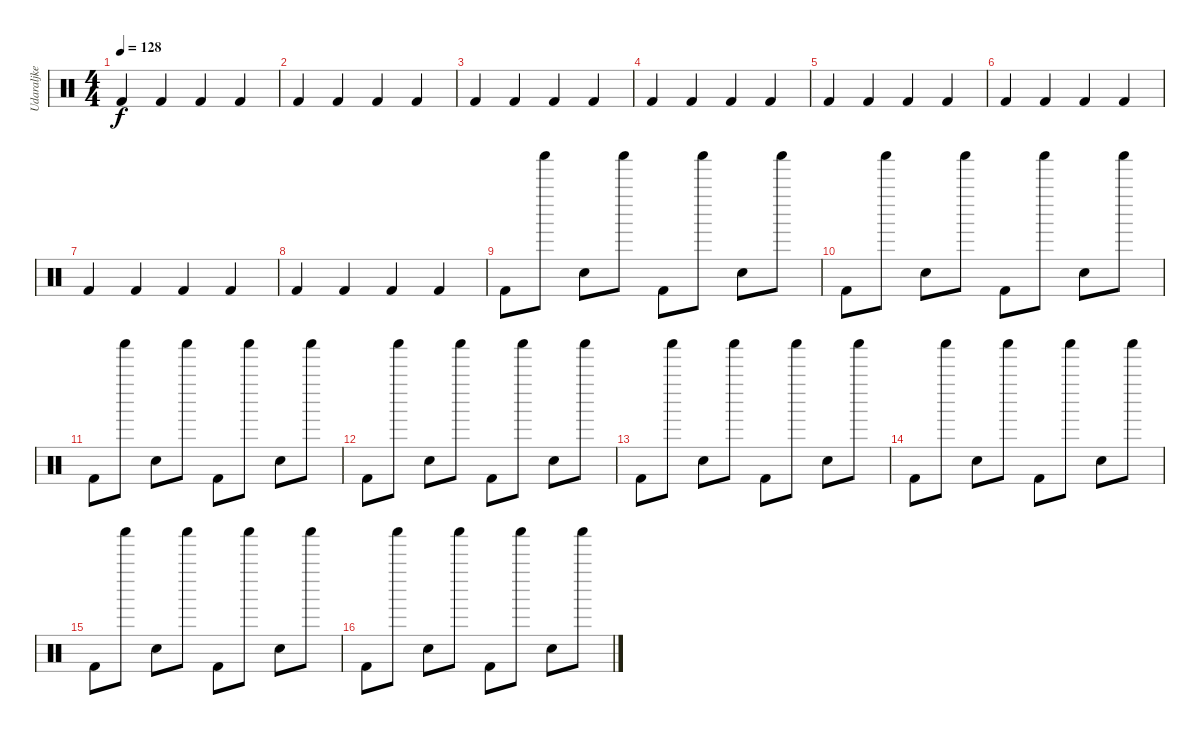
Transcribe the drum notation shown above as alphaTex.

\track ("Udaraljke" "Udaraljke") {instrument percussion}
\staff {score}
\articulation defaults
\ts (4 4)
\tempo 128
\clef neutral
\ks c "Kick (hit) 2".4{dy f} "Kick (hit) 2".4 "Kick (hit) 2".4 "Kick (hit) 2".4
|
"Kick (hit) 2".4 "Kick (hit) 2".4 "Kick (hit) 2".4 "Kick (hit) 2".4 |
"Kick (hit) 2".4 "Kick (hit) 2".4 "Kick (hit) 2".4 "Kick (hit) 2".4 |
"Kick (hit) 2".4 "Kick (hit) 2".4 "Kick (hit) 2".4 "Kick (hit) 2".4 |
"Kick (hit) 2".4 "Kick (hit) 2".4 "Kick (hit) 2".4 "Kick (hit) 2".4 |
"Kick (hit) 2".4 "Kick (hit) 2".4 "Kick (hit) 2".4 "Kick (hit) 2".4 |
"Kick (hit) 2".4 "Kick (hit) 2".4 "Kick (hit) 2".4 "Kick (hit) 2".4 |
"Kick (hit) 2".4 "Kick (hit) 2".4 "Kick (hit) 2".4 "Kick (hit) 2".4 |
"Kick (hit) 2".8 "Shaker (hit)".8 "Hand Clap (hit)".8 "Shaker (hit)".8 "Kick (hit) 2".8 "Shaker (hit)".8 "Hand Clap (hit)".8 "Shaker (hit)".8 |
"Kick (hit) 2".8 "Shaker (hit)".8 "Hand Clap (hit)".8 "Shaker (hit)".8 "Kick (hit) 2".8 "Shaker (hit)".8 "Hand Clap (hit)".8 "Shaker (hit)".8 |
"Kick (hit) 2".8 "Shaker (hit)".8 "Hand Clap (hit)".8 "Shaker (hit)".8 "Kick (hit) 2".8 "Shaker (hit)".8 "Hand Clap (hit)".8 "Shaker (hit)".8 |
"Kick (hit) 2".8 "Shaker (hit)".8 "Hand Clap (hit)".8 "Shaker (hit)".8 "Kick (hit) 2".8 "Shaker (hit)".8 "Hand Clap (hit)".8 "Shaker (hit)".8 |
"Kick (hit) 2".8 "Shaker (hit)".8 "Hand Clap (hit)".8 "Shaker (hit)".8 "Kick (hit) 2".8 "Shaker (hit)".8 "Hand Clap (hit)".8 "Shaker (hit)".8 |
"Kick (hit) 2".8 "Shaker (hit)".8 "Hand Clap (hit)".8 "Shaker (hit)".8 "Kick (hit) 2".8 "Shaker (hit)".8 "Hand Clap (hit)".8 "Shaker (hit)".8 |
"Kick (hit) 2".8 "Shaker (hit)".8 "Hand Clap (hit)".8 "Shaker (hit)".8 "Kick (hit) 2".8 "Shaker (hit)".8 "Hand Clap (hit)".8 "Shaker (hit)".8 |
"Kick (hit) 2".8 "Shaker (hit)".8 "Hand Clap (hit)".8 "Shaker (hit)".8 "Kick (hit) 2".8 "Shaker (hit)".8 "Hand Clap (hit)".8 "Shaker (hit)".8
